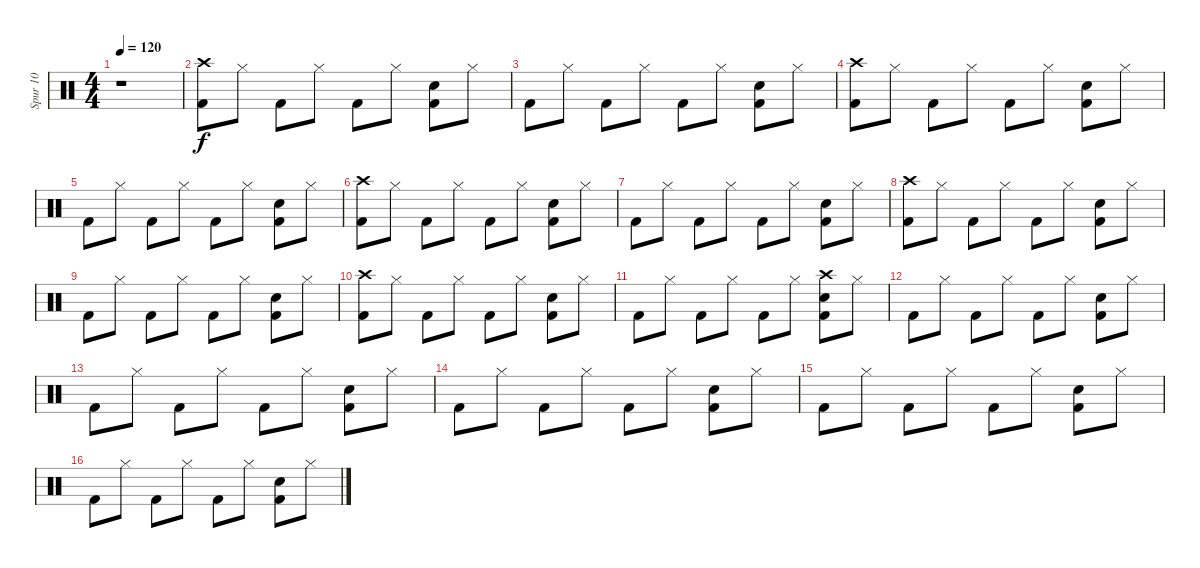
\track ("Spur 10" "Spur 10") {instrument percussion}
\staff {score}
\articulation defaults
\ts (4 4)
\tempo 120
\clef neutral
\ks c
r.1{dy f} |
("Crash high (hit)" "Kick (hit) 2").8 "Hi-Hat (closed)".8 "Kick (hit) 2".8 "Hi-Hat (closed)".8 "Kick (hit) 2".8 "Hi-Hat (closed)".8 ("Kick (hit) 2" "Hand Clap (hit)").8 "Hi-Hat (closed)".8 |
"Kick (hit) 2".8 "Hi-Hat (closed)".8 "Kick (hit) 2".8 "Hi-Hat (closed)".8 "Kick (hit) 2".8 "Hi-Hat (closed)".8 ("Kick (hit) 2" "Hand Clap (hit)").8 "Hi-Hat (closed)".8 |
("Kick (hit) 2" "Crash high (hit)").8 "Hi-Hat (closed)".8 "Kick (hit) 2".8 "Hi-Hat (closed)".8 "Kick (hit) 2".8 "Hi-Hat (closed)".8 ("Kick (hit) 2" "Hand Clap (hit)").8 "Hi-Hat (closed)".8 |
"Kick (hit) 2".8 "Hi-Hat (closed)".8 "Kick (hit) 2".8 "Hi-Hat (closed)".8 "Kick (hit) 2".8 "Hi-Hat (closed)".8 ("Kick (hit) 2" "Hand Clap (hit)").8 "Hi-Hat (closed)".8 |
("Kick (hit) 2" "Crash high (hit)").8 "Hi-Hat (closed)".8 "Kick (hit) 2".8 "Hi-Hat (closed)".8 "Kick (hit) 2".8 "Hi-Hat (closed)".8 ("Kick (hit) 2" "Hand Clap (hit)").8 "Hi-Hat (closed)".8 |
"Kick (hit) 2".8 "Hi-Hat (closed)".8 "Kick (hit) 2".8 "Hi-Hat (closed)".8 "Kick (hit) 2".8 "Hi-Hat (closed)".8 ("Kick (hit) 2" "Hand Clap (hit)").8 "Hi-Hat (closed)".8 |
("Kick (hit) 2" "Crash high (hit)").8 "Hi-Hat (closed)".8 "Kick (hit) 2".8 "Hi-Hat (closed)".8 "Kick (hit) 2".8 "Hi-Hat (closed)".8 ("Kick (hit) 2" "Hand Clap (hit)").8 "Hi-Hat (closed)".8 |
"Kick (hit) 2".8 "Hi-Hat (closed)".8 "Kick (hit) 2".8 "Hi-Hat (closed)".8 "Kick (hit) 2".8 "Hi-Hat (closed)".8 ("Kick (hit) 2" "Hand Clap (hit)").8 "Hi-Hat (closed)".8 |
("Kick (hit) 2" "Crash high (hit)").8 "Hi-Hat (closed)".8 "Kick (hit) 2".8 "Hi-Hat (closed)".8 "Kick (hit) 2".8 "Hi-Hat (closed)".8 ("Kick (hit) 2" "Hand Clap (hit)").8 "Hi-Hat (closed)".8 |
"Kick (hit) 2".8 "Hi-Hat (closed)".8 "Kick (hit) 2".8 "Hi-Hat (closed)".8 "Kick (hit) 2".8 "Hi-Hat (closed)".8 ("Kick (hit) 2" "Hand Clap (hit)" "Crash high (hit)").8 "Hi-Hat (closed)".8 |
"Kick (hit) 2".8 "Hi-Hat (closed)".8 "Kick (hit) 2".8 "Hi-Hat (closed)".8 "Kick (hit) 2".8 "Hi-Hat (closed)".8 ("Kick (hit) 2" "Hand Clap (hit)").8 "Hi-Hat (closed)".8 |
"Kick (hit) 2".8 "Hi-Hat (closed)".8 "Kick (hit) 2".8 "Hi-Hat (closed)".8 "Kick (hit) 2".8 "Hi-Hat (closed)".8 ("Kick (hit) 2" "Hand Clap (hit)").8 "Hi-Hat (closed)".8 |
"Kick (hit) 2".8 "Hi-Hat (closed)".8 "Kick (hit) 2".8 "Hi-Hat (closed)".8 "Kick (hit) 2".8 "Hi-Hat (closed)".8 ("Kick (hit) 2" "Hand Clap (hit)").8 "Hi-Hat (closed)".8 |
"Kick (hit) 2".8 "Hi-Hat (closed)".8 "Kick (hit) 2".8 "Hi-Hat (closed)".8 "Kick (hit) 2".8 "Hi-Hat (closed)".8 ("Kick (hit) 2" "Hand Clap (hit)").8 "Hi-Hat (closed)".8 |
"Kick (hit) 2".8 "Hi-Hat (closed)".8 "Kick (hit) 2".8 "Hi-Hat (closed)".8 "Kick (hit) 2".8 "Hi-Hat (closed)".8 ("Kick (hit) 2" "Hand Clap (hit)").8 "Hi-Hat (closed)".8
